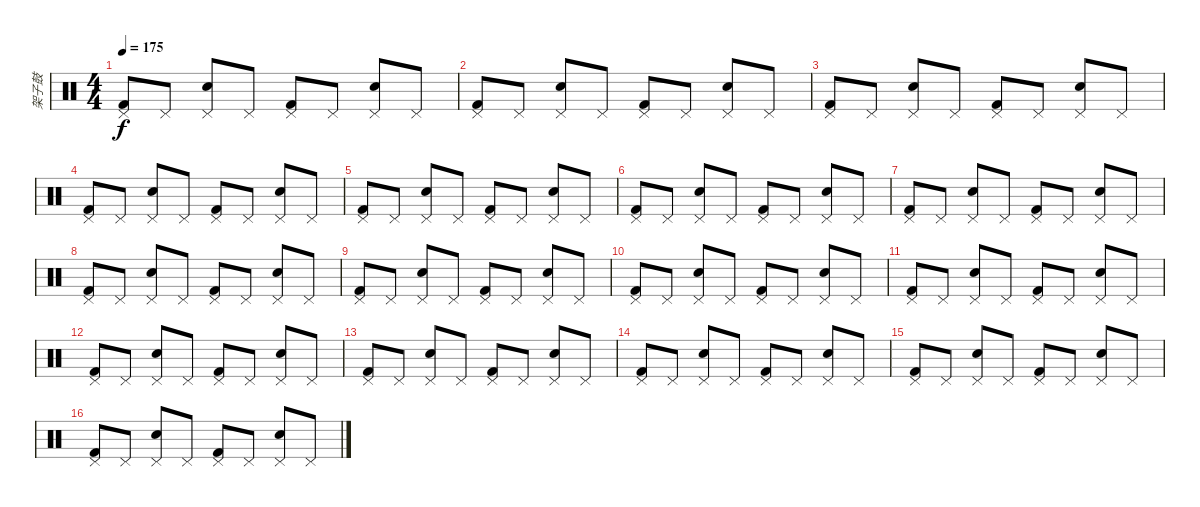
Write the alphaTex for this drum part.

\track ("架子鼓" "架子鼓") {instrument percussion}
\staff {score}
\articulation defaults
\ts (4 4)
\tempo 175
\clef neutral
\ks c
("Pedal Hi-Hat (hit)" "Kick (hit) 2").8{dy f} "Pedal Hi-Hat (hit)".8 ("Pedal Hi-Hat (hit)" "Electric Snare (hit)").8 "Pedal Hi-Hat (hit)".8 ("Pedal Hi-Hat (hit)" "Kick (hit) 2").8 "Pedal Hi-Hat (hit)".8 ("Pedal Hi-Hat (hit)" "Electric Snare (hit)").8 "Pedal Hi-Hat (hit)".8 |
("Pedal Hi-Hat (hit)" "Kick (hit) 2").8 "Pedal Hi-Hat (hit)".8 ("Pedal Hi-Hat (hit)" "Electric Snare (hit)").8 "Pedal Hi-Hat (hit)".8 ("Pedal Hi-Hat (hit)" "Kick (hit) 2").8 "Pedal Hi-Hat (hit)".8 ("Pedal Hi-Hat (hit)" "Electric Snare (hit)").8 "Pedal Hi-Hat (hit)".8 |
("Pedal Hi-Hat (hit)" "Kick (hit) 2").8 "Pedal Hi-Hat (hit)".8 ("Pedal Hi-Hat (hit)" "Electric Snare (hit)").8 "Pedal Hi-Hat (hit)".8 ("Pedal Hi-Hat (hit)" "Kick (hit) 2").8 "Pedal Hi-Hat (hit)".8 ("Pedal Hi-Hat (hit)" "Electric Snare (hit)").8 "Pedal Hi-Hat (hit)".8 |
("Pedal Hi-Hat (hit)" "Kick (hit) 2").8 "Pedal Hi-Hat (hit)".8 ("Pedal Hi-Hat (hit)" "Electric Snare (hit)").8 "Pedal Hi-Hat (hit)".8 ("Pedal Hi-Hat (hit)" "Kick (hit) 2").8 "Pedal Hi-Hat (hit)".8 ("Pedal Hi-Hat (hit)" "Electric Snare (hit)").8 "Pedal Hi-Hat (hit)".8 |
("Pedal Hi-Hat (hit)" "Kick (hit) 2").8 "Pedal Hi-Hat (hit)".8 ("Pedal Hi-Hat (hit)" "Electric Snare (hit)").8 "Pedal Hi-Hat (hit)".8 ("Pedal Hi-Hat (hit)" "Kick (hit) 2").8 "Pedal Hi-Hat (hit)".8 ("Pedal Hi-Hat (hit)" "Electric Snare (hit)").8 "Pedal Hi-Hat (hit)".8 |
("Pedal Hi-Hat (hit)" "Kick (hit) 2").8 "Pedal Hi-Hat (hit)".8 ("Pedal Hi-Hat (hit)" "Electric Snare (hit)").8 "Pedal Hi-Hat (hit)".8 ("Pedal Hi-Hat (hit)" "Kick (hit) 2").8 "Pedal Hi-Hat (hit)".8 ("Pedal Hi-Hat (hit)" "Electric Snare (hit)").8 "Pedal Hi-Hat (hit)".8 |
("Pedal Hi-Hat (hit)" "Kick (hit) 2").8 "Pedal Hi-Hat (hit)".8 ("Pedal Hi-Hat (hit)" "Electric Snare (hit)").8 "Pedal Hi-Hat (hit)".8 ("Pedal Hi-Hat (hit)" "Kick (hit) 2").8 "Pedal Hi-Hat (hit)".8 ("Pedal Hi-Hat (hit)" "Electric Snare (hit)").8 "Pedal Hi-Hat (hit)".8 |
("Pedal Hi-Hat (hit)" "Kick (hit) 2").8 "Pedal Hi-Hat (hit)".8 ("Pedal Hi-Hat (hit)" "Electric Snare (hit)").8 "Pedal Hi-Hat (hit)".8 ("Pedal Hi-Hat (hit)" "Kick (hit) 2").8 "Pedal Hi-Hat (hit)".8 ("Pedal Hi-Hat (hit)" "Electric Snare (hit)").8 "Pedal Hi-Hat (hit)".8 |
("Pedal Hi-Hat (hit)" "Kick (hit) 2").8 "Pedal Hi-Hat (hit)".8 ("Pedal Hi-Hat (hit)" "Electric Snare (hit)").8 "Pedal Hi-Hat (hit)".8 ("Pedal Hi-Hat (hit)" "Kick (hit) 2").8 "Pedal Hi-Hat (hit)".8 ("Pedal Hi-Hat (hit)" "Electric Snare (hit)").8 "Pedal Hi-Hat (hit)".8 |
("Pedal Hi-Hat (hit)" "Kick (hit) 2").8 "Pedal Hi-Hat (hit)".8 ("Pedal Hi-Hat (hit)" "Electric Snare (hit)").8 "Pedal Hi-Hat (hit)".8 ("Pedal Hi-Hat (hit)" "Kick (hit) 2").8 "Pedal Hi-Hat (hit)".8 ("Pedal Hi-Hat (hit)" "Electric Snare (hit)").8 "Pedal Hi-Hat (hit)".8 |
("Pedal Hi-Hat (hit)" "Kick (hit) 2").8 "Pedal Hi-Hat (hit)".8 ("Pedal Hi-Hat (hit)" "Electric Snare (hit)").8 "Pedal Hi-Hat (hit)".8 ("Pedal Hi-Hat (hit)" "Kick (hit) 2").8 "Pedal Hi-Hat (hit)".8 ("Pedal Hi-Hat (hit)" "Electric Snare (hit)").8 "Pedal Hi-Hat (hit)".8 |
("Pedal Hi-Hat (hit)" "Kick (hit) 2").8 "Pedal Hi-Hat (hit)".8 ("Pedal Hi-Hat (hit)" "Electric Snare (hit)").8 "Pedal Hi-Hat (hit)".8 ("Pedal Hi-Hat (hit)" "Kick (hit) 2").8 "Pedal Hi-Hat (hit)".8 ("Pedal Hi-Hat (hit)" "Electric Snare (hit)").8 "Pedal Hi-Hat (hit)".8 |
("Pedal Hi-Hat (hit)" "Kick (hit) 2").8 "Pedal Hi-Hat (hit)".8 ("Pedal Hi-Hat (hit)" "Electric Snare (hit)").8 "Pedal Hi-Hat (hit)".8 ("Pedal Hi-Hat (hit)" "Kick (hit) 2").8 "Pedal Hi-Hat (hit)".8 ("Pedal Hi-Hat (hit)" "Electric Snare (hit)").8 "Pedal Hi-Hat (hit)".8 |
("Pedal Hi-Hat (hit)" "Kick (hit) 2").8 "Pedal Hi-Hat (hit)".8 ("Pedal Hi-Hat (hit)" "Electric Snare (hit)").8 "Pedal Hi-Hat (hit)".8 ("Pedal Hi-Hat (hit)" "Kick (hit) 2").8 "Pedal Hi-Hat (hit)".8 ("Pedal Hi-Hat (hit)" "Electric Snare (hit)").8 "Pedal Hi-Hat (hit)".8 |
("Pedal Hi-Hat (hit)" "Kick (hit) 2").8 "Pedal Hi-Hat (hit)".8 ("Pedal Hi-Hat (hit)" "Electric Snare (hit)").8 "Pedal Hi-Hat (hit)".8 ("Pedal Hi-Hat (hit)" "Kick (hit) 2").8 "Pedal Hi-Hat (hit)".8 ("Pedal Hi-Hat (hit)" "Electric Snare (hit)").8 "Pedal Hi-Hat (hit)".8 |
("Pedal Hi-Hat (hit)" "Kick (hit) 2").8 "Pedal Hi-Hat (hit)".8 ("Pedal Hi-Hat (hit)" "Electric Snare (hit)").8 "Pedal Hi-Hat (hit)".8 ("Pedal Hi-Hat (hit)" "Kick (hit) 2").8 "Pedal Hi-Hat (hit)".8 ("Pedal Hi-Hat (hit)" "Electric Snare (hit)").8 "Pedal Hi-Hat (hit)".8
